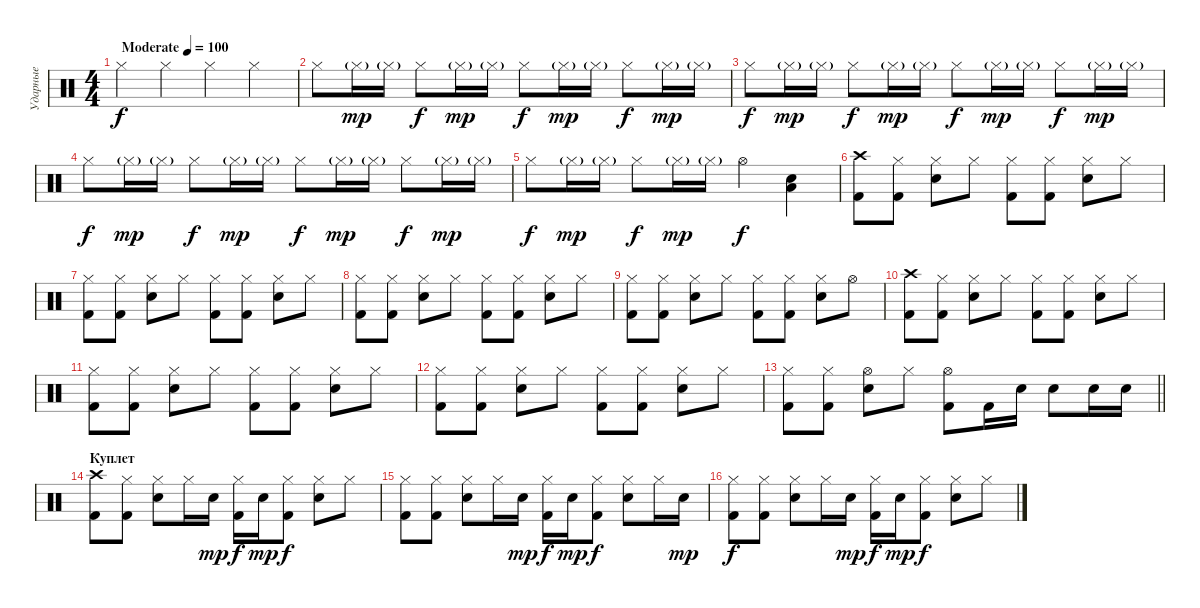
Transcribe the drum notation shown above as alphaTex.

\track ("Ударные" "Ударные") {instrument percussion}
\staff {score}
\articulation defaults
\ts (4 4)
\tempo (100 "Moderate")
\clef neutral
\ks c "Hi-Hat (closed)".4{dy f} "Hi-Hat (closed)".4 "Hi-Hat (closed)".4 "Hi-Hat (closed)".4
|
"Hi-Hat (closed)".8 "Hi-Hat (closed)"{g}.16{dy mp} "Hi-Hat (closed)"{g}.16 "Hi-Hat (closed)".8{dy f} "Hi-Hat (closed)"{g}.16{dy mp} "Hi-Hat (closed)"{g}.16 "Hi-Hat (closed)".8{dy f} "Hi-Hat (closed)"{g}.16{dy mp} "Hi-Hat (closed)"{g}.16 "Hi-Hat (closed)".8{dy f} "Hi-Hat (closed)"{g}.16{dy mp} "Hi-Hat (closed)"{g}.16 |
"Hi-Hat (closed)".8{dy f} "Hi-Hat (closed)"{g}.16{dy mp} "Hi-Hat (closed)"{g}.16 "Hi-Hat (closed)".8{dy f} "Hi-Hat (closed)"{g}.16{dy mp} "Hi-Hat (closed)"{g}.16 "Hi-Hat (closed)".8{dy f} "Hi-Hat (closed)"{g}.16{dy mp} "Hi-Hat (closed)"{g}.16 "Hi-Hat (closed)".8{dy f} "Hi-Hat (closed)"{g}.16{dy mp} "Hi-Hat (closed)"{g}.16 |
"Hi-Hat (closed)".8{dy f} "Hi-Hat (closed)"{g}.16{dy mp} "Hi-Hat (closed)"{g}.16 "Hi-Hat (closed)".8{dy f} "Hi-Hat (closed)"{g}.16{dy mp} "Hi-Hat (closed)"{g}.16 "Hi-Hat (closed)".8{dy f} "Hi-Hat (closed)"{g}.16{dy mp} "Hi-Hat (closed)"{g}.16 "Hi-Hat (closed)".8{dy f} "Hi-Hat (closed)"{g}.16{dy mp} "Hi-Hat (closed)"{g}.16 |
"Hi-Hat (closed)".8{dy f} "Hi-Hat (closed)"{g}.16{dy mp} "Hi-Hat (closed)"{g}.16 "Hi-Hat (closed)".8{dy f} "Hi-Hat (closed)"{g}.16{dy mp} "Hi-Hat (closed)"{g}.16 "Hi-Hat (open)".4{dy f} ("Electric Snare (hit)" "Low Tom (hit)").4 |
("Crash high (hit)" "Kick (hit) 2").8 ("Hi-Hat (closed)" "Kick (hit) 2").8 ("Hi-Hat (closed)" "Electric Snare (hit)").8 "Hi-Hat (closed)".8 ("Hi-Hat (closed)" "Kick (hit) 2").8 ("Hi-Hat (closed)" "Kick (hit) 2").8 ("Hi-Hat (closed)" "Electric Snare (hit)").8 "Hi-Hat (closed)".8 |
("Hi-Hat (closed)" "Kick (hit) 2").8 ("Hi-Hat (closed)" "Kick (hit) 2").8 ("Hi-Hat (closed)" "Electric Snare (hit)").8 "Hi-Hat (closed)".8 ("Hi-Hat (closed)" "Kick (hit) 2").8 ("Hi-Hat (closed)" "Kick (hit) 2").8 ("Hi-Hat (closed)" "Electric Snare (hit)").8 "Hi-Hat (closed)".8 |
("Hi-Hat (closed)" "Kick (hit) 2").8 ("Hi-Hat (closed)" "Kick (hit) 2").8 ("Hi-Hat (closed)" "Electric Snare (hit)").8 "Hi-Hat (closed)".8 ("Hi-Hat (closed)" "Kick (hit) 2").8 ("Hi-Hat (closed)" "Kick (hit) 2").8 ("Hi-Hat (closed)" "Electric Snare (hit)").8 "Hi-Hat (closed)".8 |
("Hi-Hat (closed)" "Kick (hit) 2").8 ("Hi-Hat (closed)" "Kick (hit) 2").8 ("Hi-Hat (closed)" "Electric Snare (hit)").8 "Hi-Hat (closed)".8 ("Hi-Hat (closed)" "Kick (hit) 2").8 ("Hi-Hat (closed)" "Kick (hit) 2").8 ("Hi-Hat (closed)" "Electric Snare (hit)").8 "Hi-Hat (open)".8 |
("Crash high (hit)" "Kick (hit) 2").8 ("Hi-Hat (closed)" "Kick (hit) 2").8 ("Hi-Hat (closed)" "Electric Snare (hit)").8 "Hi-Hat (closed)".8 ("Hi-Hat (closed)" "Kick (hit) 2").8 ("Hi-Hat (closed)" "Kick (hit) 2").8 ("Hi-Hat (closed)" "Electric Snare (hit)").8 "Hi-Hat (closed)".8 |
("Hi-Hat (closed)" "Kick (hit) 2").8 ("Hi-Hat (closed)" "Kick (hit) 2").8 ("Hi-Hat (closed)" "Electric Snare (hit)").8 "Hi-Hat (closed)".8 ("Hi-Hat (closed)" "Kick (hit) 2").8 ("Hi-Hat (closed)" "Kick (hit) 2").8 ("Hi-Hat (closed)" "Electric Snare (hit)").8 "Hi-Hat (closed)".8 |
("Hi-Hat (closed)" "Kick (hit) 2").8 ("Hi-Hat (closed)" "Kick (hit) 2").8 ("Hi-Hat (closed)" "Electric Snare (hit)").8 "Hi-Hat (closed)".8 ("Hi-Hat (closed)" "Kick (hit) 2").8 ("Hi-Hat (closed)" "Kick (hit) 2").8 ("Hi-Hat (closed)" "Electric Snare (hit)").8 "Hi-Hat (closed)".8 |
\barLineRight lightlight
("Hi-Hat (closed)" "Kick (hit) 2").8 ("Hi-Hat (closed)" "Kick (hit) 2").8 ("Hi-Hat (open)" "Electric Snare (hit)").8 "Hi-Hat (closed)".8 ("Hi-Hat (open)" "Kick (hit) 2").8 "Kick (hit) 2".16 "Electric Snare (hit)".16 "Electric Snare (hit)".8 "Electric Snare (hit)".16 "Electric Snare (hit)".16 |
\section ("" "Куплет")
("Crash high (hit)" "Kick (hit) 2").8 ("Hi-Hat (closed)" "Kick (hit) 2").8 ("Hi-Hat (closed)" "Electric Snare (hit)").8 "Hi-Hat (closed)".16 "Electric Snare (hit)".16{dy mp} ("Hi-Hat (closed)" "Kick (hit) 2").16{dy f} "Electric Snare (hit)".16{dy mp} ("Hi-Hat (closed)" "Kick (hit) 2").8{dy f} ("Hi-Hat (closed)" "Electric Snare (hit)").8 "Hi-Hat (closed)".8 |
("Hi-Hat (closed)" "Kick (hit) 2").8 ("Hi-Hat (closed)" "Kick (hit) 2").8 ("Hi-Hat (closed)" "Electric Snare (hit)").8 "Hi-Hat (closed)".16 "Electric Snare (hit)".16{dy mp} ("Hi-Hat (closed)" "Kick (hit) 2").16{dy f} "Electric Snare (hit)".16{dy mp} ("Hi-Hat (closed)" "Kick (hit) 2").8{dy f} ("Hi-Hat (closed)" "Electric Snare (hit)").8 "Hi-Hat (closed)".16 "Electric Snare (hit)".16{dy mp} |
("Hi-Hat (closed)" "Kick (hit) 2").8{dy f} ("Hi-Hat (closed)" "Kick (hit) 2").8 ("Hi-Hat (closed)" "Electric Snare (hit)").8 "Hi-Hat (closed)".16 "Electric Snare (hit)".16{dy mp} ("Hi-Hat (closed)" "Kick (hit) 2").16{dy f} "Electric Snare (hit)".16{dy mp} ("Hi-Hat (closed)" "Kick (hit) 2").8{dy f} ("Hi-Hat (closed)" "Electric Snare (hit)").8 "Hi-Hat (closed)".8
